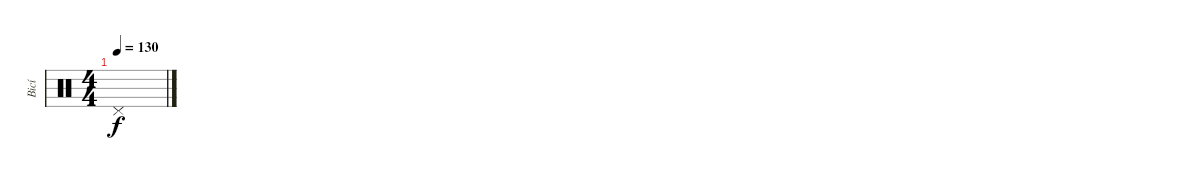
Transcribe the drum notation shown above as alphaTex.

\track ("Bicí" "Bicí") {instrument percussion}
\staff {score}
\articulation defaults
\ts (4 4)
\tempo 130
\clef neutral
\ks c "Pedal Hi-Hat (hit)".1{dy f}
